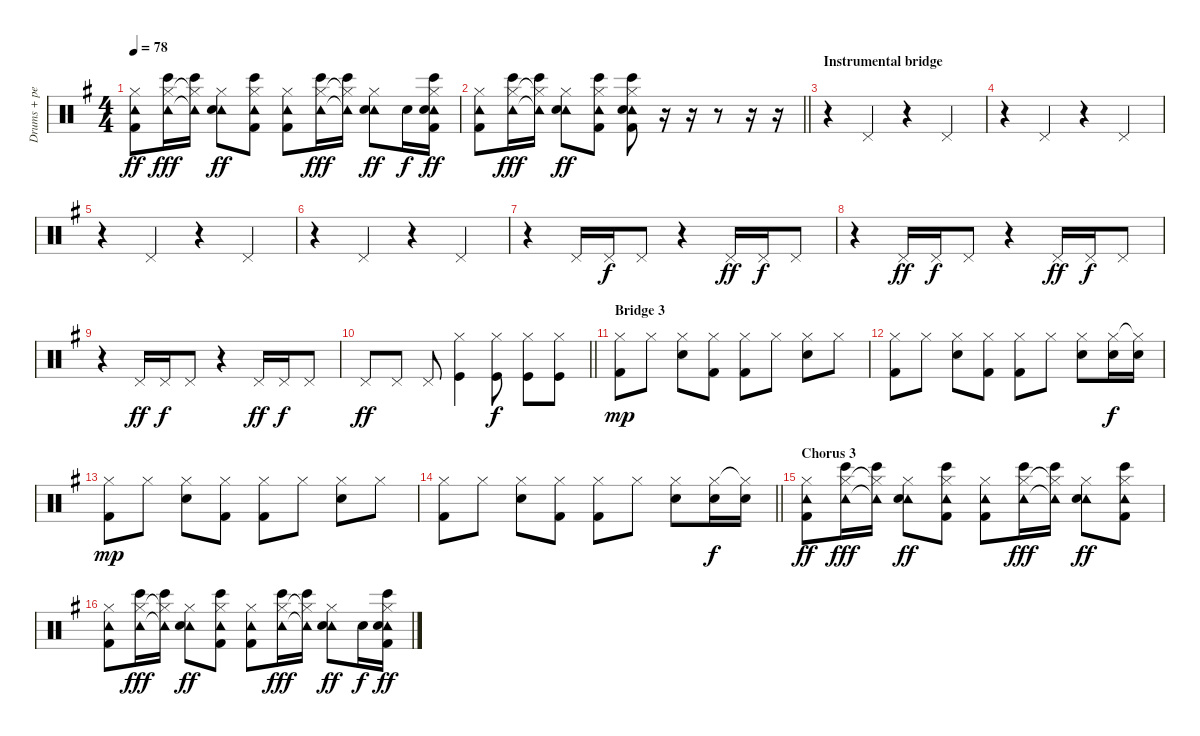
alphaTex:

\track ("Drums + percussion" "Drums + pe") {instrument percussion}
\staff {score}
\articulation defaults
\ts (4 4)
\tempo 78
\clef neutral
\ks g
("Tambourine (hit)" "Hi-Hat (closed)" "Kick (hit) 2").8{dy ff} ("Tambourine (hit)" "Hi-Hat (closed)" "Bongo High (hit)").16{dy fff} ("Tambourine (hit)"{t} "Hi-Hat (closed)"{t} "Bongo High (hit)").16 ("Tambourine (hit)" "Hi-Hat (closed)" "Snare (hit) 2").8{dy ff} ("Tambourine (hit)" "Hi-Hat (closed)" "Bongo High (hit)" "Kick (hit) 2").8 ("Tambourine (hit)" "Hi-Hat (closed)" "Kick (hit) 2").8 ("Tambourine (hit)" "Hi-Hat (closed)" "Bongo High (hit)").16{dy fff} ("Tambourine (hit)"{t} "Hi-Hat (closed)"{t} "Bongo High (hit)").16 ("Tambourine (hit)" "Hi-Hat (closed)" "Snare (hit) 2").8{dy ff} "Snare (hit) 2".16{dy f} ("Tambourine (hit)" "Hi-Hat (closed)" "Bongo High (hit)" "Snare (hit) 2" "Kick (hit) 2").16{dy ff} |
\barLineRight lightlight
("Tambourine (hit)" "Hi-Hat (closed)" "Kick (hit) 2").8 ("Tambourine (hit)" "Hi-Hat (closed)" "Bongo High (hit)").16{dy fff} ("Tambourine (hit)"{t} "Hi-Hat (closed)"{t} "Bongo High (hit)").16 ("Tambourine (hit)" "Hi-Hat (closed)" "Snare (hit) 2").8{dy ff} ("Tambourine (hit)" "Hi-Hat (closed)" "Bongo High (hit)" "Kick (hit) 2").8 ("Tambourine (hit)" "Hi-Hat (closed)" "Bongo High (hit)" "Snare (hit) 2" "Kick (hit) 2").8 r.16 r.16 r.8 r.16 r.16 |
\section ("" "Instrumental bridge")
r.4 "Pedal Hi-Hat (hit)".4 r.4 "Pedal Hi-Hat (hit)".4 |
r.4 "Pedal Hi-Hat (hit)".4 r.4 "Pedal Hi-Hat (hit)".4 |
r.4 "Pedal Hi-Hat (hit)".4 r.4 "Pedal Hi-Hat (hit)".4 |
r.4 "Pedal Hi-Hat (hit)".4 r.4 "Pedal Hi-Hat (hit)".4 |
r.4 "Pedal Hi-Hat (hit)".16 "Pedal Hi-Hat (hit)".16{dy f} "Pedal Hi-Hat (hit)".8 r.4 "Pedal Hi-Hat (hit)".16{dy ff} "Pedal Hi-Hat (hit)".16{dy f} "Pedal Hi-Hat (hit)".8 |
r.4 "Pedal Hi-Hat (hit)".16{dy ff} "Pedal Hi-Hat (hit)".16{dy f} "Pedal Hi-Hat (hit)".8 r.4 "Pedal Hi-Hat (hit)".16{dy ff} "Pedal Hi-Hat (hit)".16{dy f} "Pedal Hi-Hat (hit)".8 |
r.4 "Pedal Hi-Hat (hit)".16{dy ff} "Pedal Hi-Hat (hit)".16{dy f} "Pedal Hi-Hat (hit)".8 r.4 "Pedal Hi-Hat (hit)".16{dy ff} "Pedal Hi-Hat (hit)".16{dy f} "Pedal Hi-Hat (hit)".8 |
\barLineRight lightlight "Pedal Hi-Hat (hit)".8{dy ff} "Pedal Hi-Hat (hit)".8 "Pedal Hi-Hat (hit)".8
("Kick (hit)" "Hi-Hat (closed)").4 ("Kick (hit)" "Hi-Hat (closed)").8{dy f} ("Kick (hit)" "Hi-Hat (closed)").8 ("Kick (hit)" "Hi-Hat (closed)").8 |
\section ("" "Bridge 3")
("Hi-Hat (closed)" "Kick (hit) 2").8{dy mp} "Hi-Hat (closed)".8 ("Hi-Hat (closed)" "Snare (hit) 2").8 ("Hi-Hat (closed)" "Kick (hit) 2").8 ("Hi-Hat (closed)" "Kick (hit) 2").8 "Hi-Hat (closed)".8 ("Hi-Hat (closed)" "Snare (hit) 2").8 "Hi-Hat (closed)".8 |
("Hi-Hat (closed)" "Kick (hit) 2").8 "Hi-Hat (closed)".8 ("Hi-Hat (closed)" "Snare (hit) 2").8 ("Hi-Hat (closed)" "Kick (hit) 2").8 ("Hi-Hat (closed)" "Kick (hit) 2").8 "Hi-Hat (closed)".8 ("Hi-Hat (closed)" "Snare (hit) 2").8 ("Hi-Hat (closed)" "Snare (hit) 2").16{dy f} ("Hi-Hat (closed)"{t} "Snare (hit) 2").16 |
("Hi-Hat (closed)" "Kick (hit) 2").8{dy mp} "Hi-Hat (closed)".8 ("Hi-Hat (closed)" "Snare (hit) 2").8 ("Hi-Hat (closed)" "Kick (hit) 2").8 ("Hi-Hat (closed)" "Kick (hit) 2").8 "Hi-Hat (closed)".8 ("Hi-Hat (closed)" "Snare (hit) 2").8 "Hi-Hat (closed)".8 |
\barLineRight lightlight
("Hi-Hat (closed)" "Kick (hit) 2").8 "Hi-Hat (closed)".8 ("Hi-Hat (closed)" "Snare (hit) 2").8 ("Hi-Hat (closed)" "Kick (hit) 2").8 ("Hi-Hat (closed)" "Kick (hit) 2").8 "Hi-Hat (closed)".8 ("Hi-Hat (closed)" "Snare (hit) 2").8 ("Hi-Hat (closed)" "Snare (hit) 2").16{dy f} ("Hi-Hat (closed)"{t} "Snare (hit) 2").16 |
\section ("" "Chorus 3")
("Tambourine (hit)" "Hi-Hat (closed)" "Kick (hit) 2").8{dy ff} ("Tambourine (hit)" "Hi-Hat (closed)" "Bongo High (hit)").16{dy fff} ("Tambourine (hit)"{t} "Hi-Hat (closed)"{t} "Bongo High (hit)").16 ("Tambourine (hit)" "Hi-Hat (closed)" "Snare (hit) 2").8{dy ff} ("Tambourine (hit)" "Hi-Hat (closed)" "Bongo High (hit)" "Kick (hit) 2").8 ("Tambourine (hit)" "Hi-Hat (closed)" "Kick (hit) 2").8 ("Tambourine (hit)" "Hi-Hat (closed)" "Bongo High (hit)").16{dy fff} ("Tambourine (hit)"{t} "Hi-Hat (closed)"{t} "Bongo High (hit)").16 ("Tambourine (hit)" "Hi-Hat (closed)" "Snare (hit) 2").8{dy ff} ("Tambourine (hit)" "Hi-Hat (closed)" "Bongo High (hit)" "Kick (hit) 2").8 |
("Tambourine (hit)" "Hi-Hat (closed)" "Kick (hit) 2").8 ("Tambourine (hit)" "Hi-Hat (closed)" "Bongo High (hit)").16{dy fff} ("Tambourine (hit)"{t} "Hi-Hat (closed)"{t} "Bongo High (hit)").16 ("Tambourine (hit)" "Hi-Hat (closed)" "Snare (hit) 2").8{dy ff} ("Tambourine (hit)" "Hi-Hat (closed)" "Bongo High (hit)" "Kick (hit) 2").8 ("Tambourine (hit)" "Hi-Hat (closed)" "Kick (hit) 2").8 ("Tambourine (hit)" "Hi-Hat (closed)" "Bongo High (hit)").16{dy fff} ("Tambourine (hit)"{t} "Hi-Hat (closed)"{t} "Bongo High (hit)").16 ("Tambourine (hit)" "Hi-Hat (closed)" "Snare (hit) 2").8{dy ff} "Snare (hit) 2".16{dy f} ("Tambourine (hit)" "Hi-Hat (closed)" "Bongo High (hit)" "Snare (hit) 2" "Kick (hit) 2").16{dy ff}
